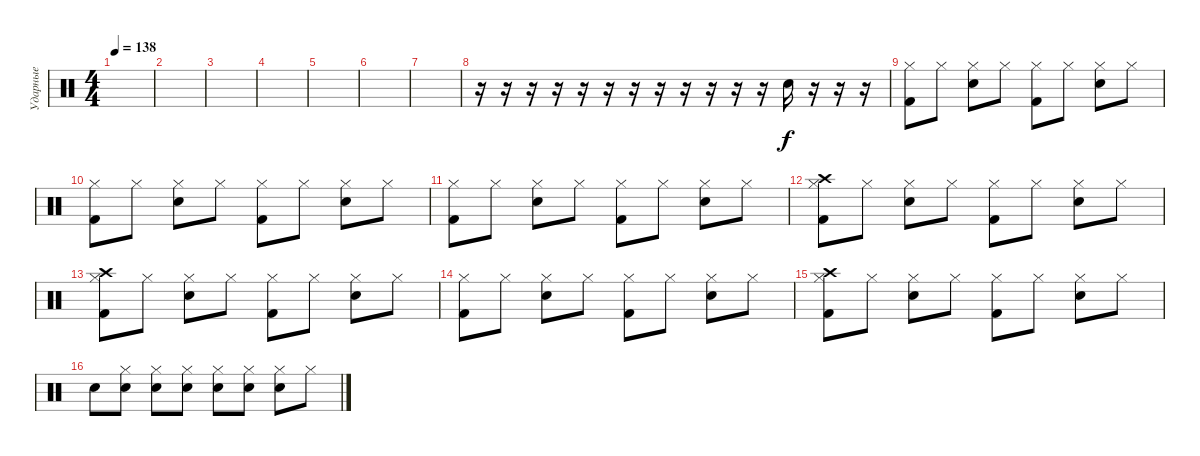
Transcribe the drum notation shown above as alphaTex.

\track ("Ударные" "Ударные") {instrument percussion}
\staff {score}
\articulation defaults
\ts (4 4)
\tempo 138
\clef neutral
\ks c
|
|
|
|
|
|
|
r.16 r.16 r.16 r.16 r.16 r.16 r.16 r.16 r.16 r.16 r.16 r.16 "Snare (hit) 2".16 r.16 r.16 r.16 |
("Hi-Hat (closed)" "Kick (hit) 2").8 "Hi-Hat (closed)".8 ("Hi-Hat (closed)" "Snare (hit) 2").8 "Hi-Hat (closed)".8 ("Hi-Hat (closed)" "Kick (hit) 2").8 "Hi-Hat (closed)".8 ("Hi-Hat (closed)" "Snare (hit) 2").8 "Hi-Hat (closed)".8 |
("Hi-Hat (closed)" "Kick (hit) 2").8 "Hi-Hat (closed)".8 ("Hi-Hat (closed)" "Snare (hit) 2").8 "Hi-Hat (closed)".8 ("Hi-Hat (closed)" "Kick (hit) 2").8 "Hi-Hat (closed)".8 ("Hi-Hat (closed)" "Snare (hit) 2").8 "Hi-Hat (closed)".8 |
("Hi-Hat (closed)" "Kick (hit) 2").8 "Hi-Hat (closed)".8 ("Hi-Hat (closed)" "Snare (hit) 2").8 "Hi-Hat (closed)".8 ("Hi-Hat (closed)" "Kick (hit) 2").8 "Hi-Hat (closed)".8 ("Hi-Hat (closed)" "Snare (hit) 2").8 "Hi-Hat (closed)".8 |
("Hi-Hat (closed)" "Kick (hit) 2" "Crash high (hit)").8 "Hi-Hat (closed)".8 ("Hi-Hat (closed)" "Snare (hit) 2").8 "Hi-Hat (closed)".8 ("Hi-Hat (closed)" "Kick (hit) 2").8 "Hi-Hat (closed)".8 ("Hi-Hat (closed)" "Snare (hit) 2").8 "Hi-Hat (closed)".8 |
("Hi-Hat (closed)" "Kick (hit) 2" "Crash high (hit)").8 "Hi-Hat (closed)".8 ("Hi-Hat (closed)" "Snare (hit) 2").8 "Hi-Hat (closed)".8 ("Hi-Hat (closed)" "Kick (hit) 2").8 "Hi-Hat (closed)".8 ("Hi-Hat (closed)" "Snare (hit) 2").8 "Hi-Hat (closed)".8 |
("Hi-Hat (closed)" "Kick (hit) 2").8 "Hi-Hat (closed)".8 ("Hi-Hat (closed)" "Snare (hit) 2").8 "Hi-Hat (closed)".8 ("Hi-Hat (closed)" "Kick (hit) 2").8 "Hi-Hat (closed)".8 ("Hi-Hat (closed)" "Snare (hit) 2").8 "Hi-Hat (closed)".8 |
("Hi-Hat (closed)" "Kick (hit) 2" "Crash high (hit)").8 "Hi-Hat (closed)".8 ("Hi-Hat (closed)" "Snare (hit) 2").8 "Hi-Hat (closed)".8 ("Hi-Hat (closed)" "Kick (hit) 2").8 "Hi-Hat (closed)".8 ("Hi-Hat (closed)" "Snare (hit) 2").8 "Hi-Hat (closed)".8 |
"Snare (hit) 2".8 ("Snare (hit) 2" "Hi-Hat (closed)").8 ("Snare (hit) 2" "Hi-Hat (closed)").8 ("Snare (hit) 2" "Hi-Hat (closed)").8 ("Snare (hit) 2" "Hi-Hat (closed)").8 ("Snare (hit) 2" "Hi-Hat (closed)").8 ("Snare (hit) 2" "Hi-Hat (closed)").8 "Hi-Hat (closed)".8
